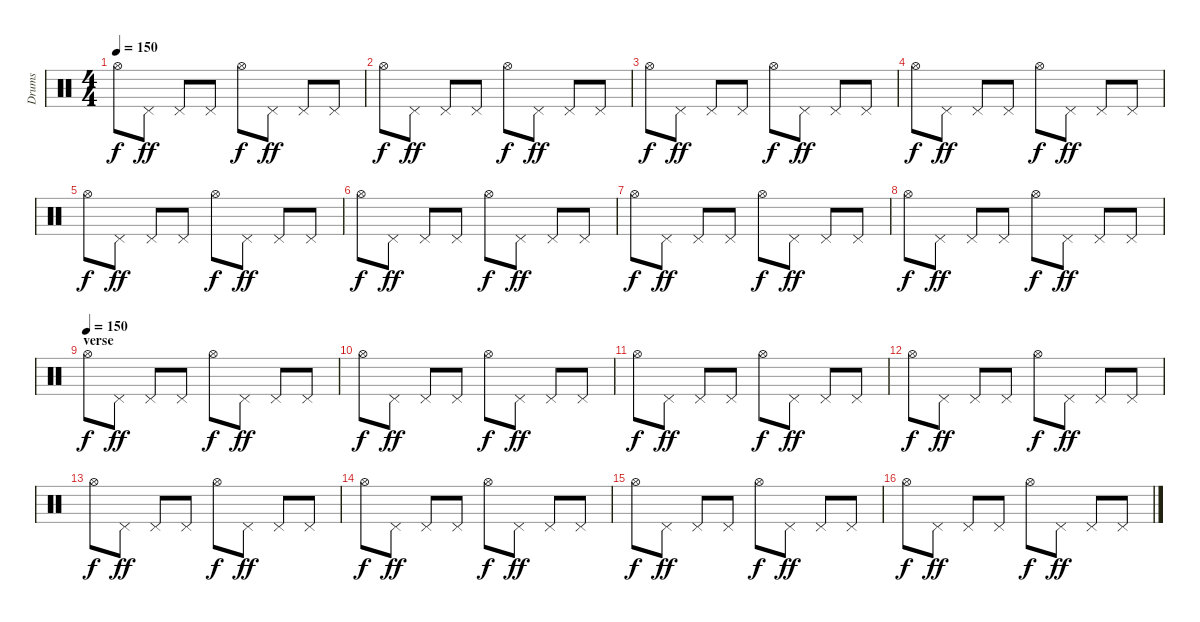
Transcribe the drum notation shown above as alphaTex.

\track ("Drums" "Drums") {instrument percussion}
\staff {score}
\articulation defaults
\ts (4 4)
\tempo 150
\clef neutral
\ks c "Hi-Hat (open)".8{dy f} "Pedal Hi-Hat (hit)".8{dy ff} "Pedal Hi-Hat (hit)".8 "Pedal Hi-Hat (hit)".8 "Hi-Hat (open)".8{dy f} "Pedal Hi-Hat (hit)".8{dy ff} "Pedal Hi-Hat (hit)".8 "Pedal Hi-Hat (hit)".8
|
"Hi-Hat (open)".8{dy f} "Pedal Hi-Hat (hit)".8{dy ff} "Pedal Hi-Hat (hit)".8 "Pedal Hi-Hat (hit)".8 "Hi-Hat (open)".8{dy f} "Pedal Hi-Hat (hit)".8{dy ff} "Pedal Hi-Hat (hit)".8 "Pedal Hi-Hat (hit)".8 |
"Hi-Hat (open)".8{dy f} "Pedal Hi-Hat (hit)".8{dy ff} "Pedal Hi-Hat (hit)".8 "Pedal Hi-Hat (hit)".8 "Hi-Hat (open)".8{dy f} "Pedal Hi-Hat (hit)".8{dy ff} "Pedal Hi-Hat (hit)".8 "Pedal Hi-Hat (hit)".8 |
"Hi-Hat (open)".8{dy f} "Pedal Hi-Hat (hit)".8{dy ff} "Pedal Hi-Hat (hit)".8 "Pedal Hi-Hat (hit)".8 "Hi-Hat (open)".8{dy f} "Pedal Hi-Hat (hit)".8{dy ff} "Pedal Hi-Hat (hit)".8 "Pedal Hi-Hat (hit)".8 |
"Hi-Hat (open)".8{dy f} "Pedal Hi-Hat (hit)".8{dy ff} "Pedal Hi-Hat (hit)".8 "Pedal Hi-Hat (hit)".8 "Hi-Hat (open)".8{dy f} "Pedal Hi-Hat (hit)".8{dy ff} "Pedal Hi-Hat (hit)".8 "Pedal Hi-Hat (hit)".8 |
"Hi-Hat (open)".8{dy f} "Pedal Hi-Hat (hit)".8{dy ff} "Pedal Hi-Hat (hit)".8 "Pedal Hi-Hat (hit)".8 "Hi-Hat (open)".8{dy f} "Pedal Hi-Hat (hit)".8{dy ff} "Pedal Hi-Hat (hit)".8 "Pedal Hi-Hat (hit)".8 |
"Hi-Hat (open)".8{dy f} "Pedal Hi-Hat (hit)".8{dy ff} "Pedal Hi-Hat (hit)".8 "Pedal Hi-Hat (hit)".8 "Hi-Hat (open)".8{dy f} "Pedal Hi-Hat (hit)".8{dy ff} "Pedal Hi-Hat (hit)".8 "Pedal Hi-Hat (hit)".8 |
"Hi-Hat (open)".8{dy f} "Pedal Hi-Hat (hit)".8{dy ff} "Pedal Hi-Hat (hit)".8 "Pedal Hi-Hat (hit)".8 "Hi-Hat (open)".8{dy f} "Pedal Hi-Hat (hit)".8{dy ff} "Pedal Hi-Hat (hit)".8 "Pedal Hi-Hat (hit)".8 |
\section ("" "verse")
\tempo (150)
"Hi-Hat (open)".8{dy f} "Pedal Hi-Hat (hit)".8{dy ff} "Pedal Hi-Hat (hit)".8 "Pedal Hi-Hat (hit)".8 "Hi-Hat (open)".8{dy f} "Pedal Hi-Hat (hit)".8{dy ff} "Pedal Hi-Hat (hit)".8 "Pedal Hi-Hat (hit)".8 |
"Hi-Hat (open)".8{dy f} "Pedal Hi-Hat (hit)".8{dy ff} "Pedal Hi-Hat (hit)".8 "Pedal Hi-Hat (hit)".8 "Hi-Hat (open)".8{dy f} "Pedal Hi-Hat (hit)".8{dy ff} "Pedal Hi-Hat (hit)".8 "Pedal Hi-Hat (hit)".8 |
"Hi-Hat (open)".8{dy f} "Pedal Hi-Hat (hit)".8{dy ff} "Pedal Hi-Hat (hit)".8 "Pedal Hi-Hat (hit)".8 "Hi-Hat (open)".8{dy f} "Pedal Hi-Hat (hit)".8{dy ff} "Pedal Hi-Hat (hit)".8 "Pedal Hi-Hat (hit)".8 |
"Hi-Hat (open)".8{dy f} "Pedal Hi-Hat (hit)".8{dy ff} "Pedal Hi-Hat (hit)".8 "Pedal Hi-Hat (hit)".8 "Hi-Hat (open)".8{dy f} "Pedal Hi-Hat (hit)".8{dy ff} "Pedal Hi-Hat (hit)".8 "Pedal Hi-Hat (hit)".8 |
"Hi-Hat (open)".8{dy f} "Pedal Hi-Hat (hit)".8{dy ff} "Pedal Hi-Hat (hit)".8 "Pedal Hi-Hat (hit)".8 "Hi-Hat (open)".8{dy f} "Pedal Hi-Hat (hit)".8{dy ff} "Pedal Hi-Hat (hit)".8 "Pedal Hi-Hat (hit)".8 |
"Hi-Hat (open)".8{dy f} "Pedal Hi-Hat (hit)".8{dy ff} "Pedal Hi-Hat (hit)".8 "Pedal Hi-Hat (hit)".8 "Hi-Hat (open)".8{dy f} "Pedal Hi-Hat (hit)".8{dy ff} "Pedal Hi-Hat (hit)".8 "Pedal Hi-Hat (hit)".8 |
"Hi-Hat (open)".8{dy f} "Pedal Hi-Hat (hit)".8{dy ff} "Pedal Hi-Hat (hit)".8 "Pedal Hi-Hat (hit)".8 "Hi-Hat (open)".8{dy f} "Pedal Hi-Hat (hit)".8{dy ff} "Pedal Hi-Hat (hit)".8 "Pedal Hi-Hat (hit)".8 |
"Hi-Hat (open)".8{dy f} "Pedal Hi-Hat (hit)".8{dy ff} "Pedal Hi-Hat (hit)".8 "Pedal Hi-Hat (hit)".8 "Hi-Hat (open)".8{dy f} "Pedal Hi-Hat (hit)".8{dy ff} "Pedal Hi-Hat (hit)".8 "Pedal Hi-Hat (hit)".8
